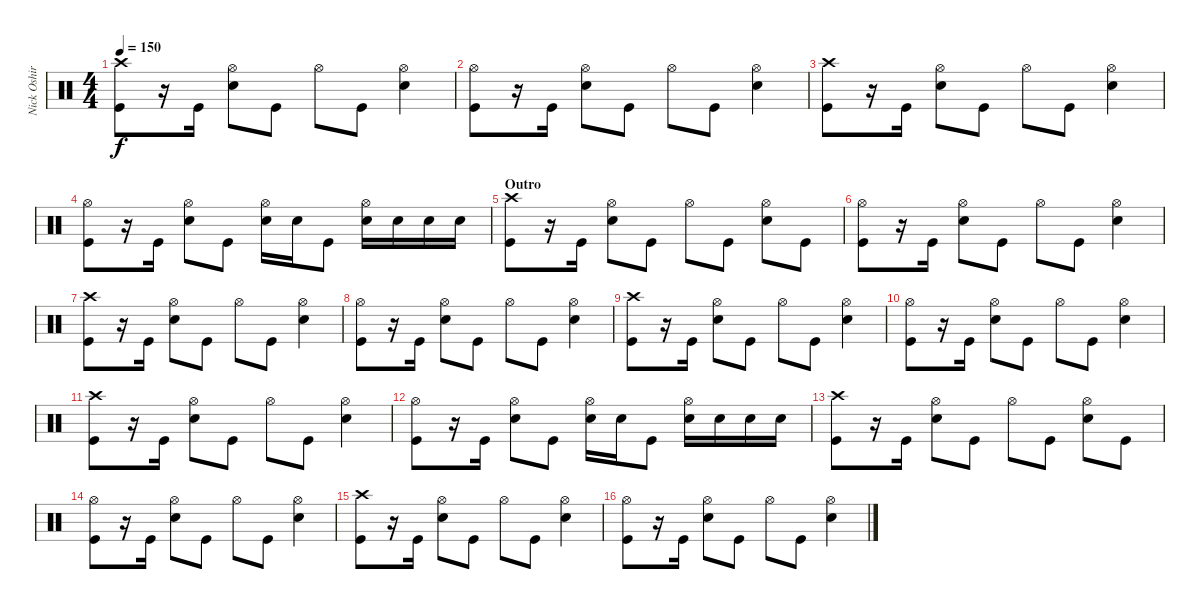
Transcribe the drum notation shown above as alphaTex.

\track ("Nick Oshiro" "Nick Oshir") {instrument percussion}
\staff {score}
\articulation defaults
\ts (4 4)
\tempo 150
\clef neutral
\ks c
("Crash high (hit)" "Kick (hit)").8{dy f} r.16 "Kick (hit)".16 ("Hi-Hat (open)" "Snare (hit) 2").8 "Kick (hit)".8 "Hi-Hat (open)".8 "Kick (hit)".8 ("Hi-Hat (open)" "Snare (hit) 2").4 |
("Hi-Hat (open)" "Kick (hit)").8 r.16 "Kick (hit)".16 ("Hi-Hat (open)" "Snare (hit) 2").8 "Kick (hit)".8 "Hi-Hat (open)".8 "Kick (hit)".8 ("Hi-Hat (open)" "Snare (hit) 2").4 |
("Crash high (hit)" "Kick (hit)").8 r.16 "Kick (hit)".16 ("Hi-Hat (open)" "Snare (hit) 2").8 "Kick (hit)".8 "Hi-Hat (open)".8 "Kick (hit)".8 ("Hi-Hat (open)" "Snare (hit) 2").4 |
("Hi-Hat (open)" "Kick (hit)").8 r.16 "Kick (hit)".16 ("Hi-Hat (open)" "Snare (hit) 2").8 "Kick (hit)".8 ("Hi-Hat (open)" "Snare (hit) 2").16 "Snare (hit) 2".16 "Kick (hit)".8 ("Hi-Hat (open)" "Snare (hit) 2").16 "Snare (hit) 2".16 "Snare (hit) 2".16 "Snare (hit) 2".16 |
\section ("" "Outro")
("Crash high (hit)" "Kick (hit)").8 r.16 "Kick (hit)".16 ("Hi-Hat (open)" "Snare (hit) 2").8 "Kick (hit)".8 "Hi-Hat (open)".8 "Kick (hit)".8 ("Hi-Hat (open)" "Snare (hit) 2").8 "Kick (hit)".8 |
("Hi-Hat (open)" "Kick (hit)").8 r.16 "Kick (hit)".16 ("Hi-Hat (open)" "Snare (hit) 2").8 "Kick (hit)".8 "Hi-Hat (open)".8 "Kick (hit)".8 ("Hi-Hat (open)" "Snare (hit) 2").4 |
("Crash high (hit)" "Kick (hit)").8 r.16 "Kick (hit)".16 ("Hi-Hat (open)" "Snare (hit) 2").8 "Kick (hit)".8 "Hi-Hat (open)".8 "Kick (hit)".8 ("Hi-Hat (open)" "Snare (hit) 2").4 |
("Hi-Hat (open)" "Kick (hit)").8 r.16 "Kick (hit)".16 ("Hi-Hat (open)" "Snare (hit) 2").8 "Kick (hit)".8 "Hi-Hat (open)".8 "Kick (hit)".8 ("Hi-Hat (open)" "Snare (hit) 2").4 |
("Crash high (hit)" "Kick (hit)").8 r.16 "Kick (hit)".16 ("Hi-Hat (open)" "Snare (hit) 2").8 "Kick (hit)".8 "Hi-Hat (open)".8 "Kick (hit)".8 ("Hi-Hat (open)" "Snare (hit) 2").4 |
("Hi-Hat (open)" "Kick (hit)").8 r.16 "Kick (hit)".16 ("Hi-Hat (open)" "Snare (hit) 2").8 "Kick (hit)".8 "Hi-Hat (open)".8 "Kick (hit)".8 ("Hi-Hat (open)" "Snare (hit) 2").4 |
("Crash high (hit)" "Kick (hit)").8 r.16 "Kick (hit)".16 ("Hi-Hat (open)" "Snare (hit) 2").8 "Kick (hit)".8 "Hi-Hat (open)".8 "Kick (hit)".8 ("Hi-Hat (open)" "Snare (hit) 2").4 |
("Hi-Hat (open)" "Kick (hit)").8 r.16 "Kick (hit)".16 ("Hi-Hat (open)" "Snare (hit) 2").8 "Kick (hit)".8 ("Hi-Hat (open)" "Snare (hit) 2").16 "Snare (hit) 2".16 "Kick (hit)".8 ("Hi-Hat (open)" "Snare (hit) 2").16 "Snare (hit) 2".16 "Snare (hit) 2".16 "Snare (hit) 2".16 |
("Crash high (hit)" "Kick (hit)").8 r.16 "Kick (hit)".16 ("Hi-Hat (open)" "Snare (hit) 2").8 "Kick (hit)".8 "Hi-Hat (open)".8 "Kick (hit)".8 ("Hi-Hat (open)" "Snare (hit) 2").8 "Kick (hit)".8 |
("Hi-Hat (open)" "Kick (hit)").8 r.16 "Kick (hit)".16 ("Hi-Hat (open)" "Snare (hit) 2").8 "Kick (hit)".8 "Hi-Hat (open)".8 "Kick (hit)".8 ("Hi-Hat (open)" "Snare (hit) 2").4 |
("Crash high (hit)" "Kick (hit)").8 r.16 "Kick (hit)".16 ("Hi-Hat (open)" "Snare (hit) 2").8 "Kick (hit)".8 "Hi-Hat (open)".8 "Kick (hit)".8 ("Hi-Hat (open)" "Snare (hit) 2").4 |
("Hi-Hat (open)" "Kick (hit)").8 r.16 "Kick (hit)".16 ("Hi-Hat (open)" "Snare (hit) 2").8 "Kick (hit)".8 "Hi-Hat (open)".8 "Kick (hit)".8 ("Hi-Hat (open)" "Snare (hit) 2").4
